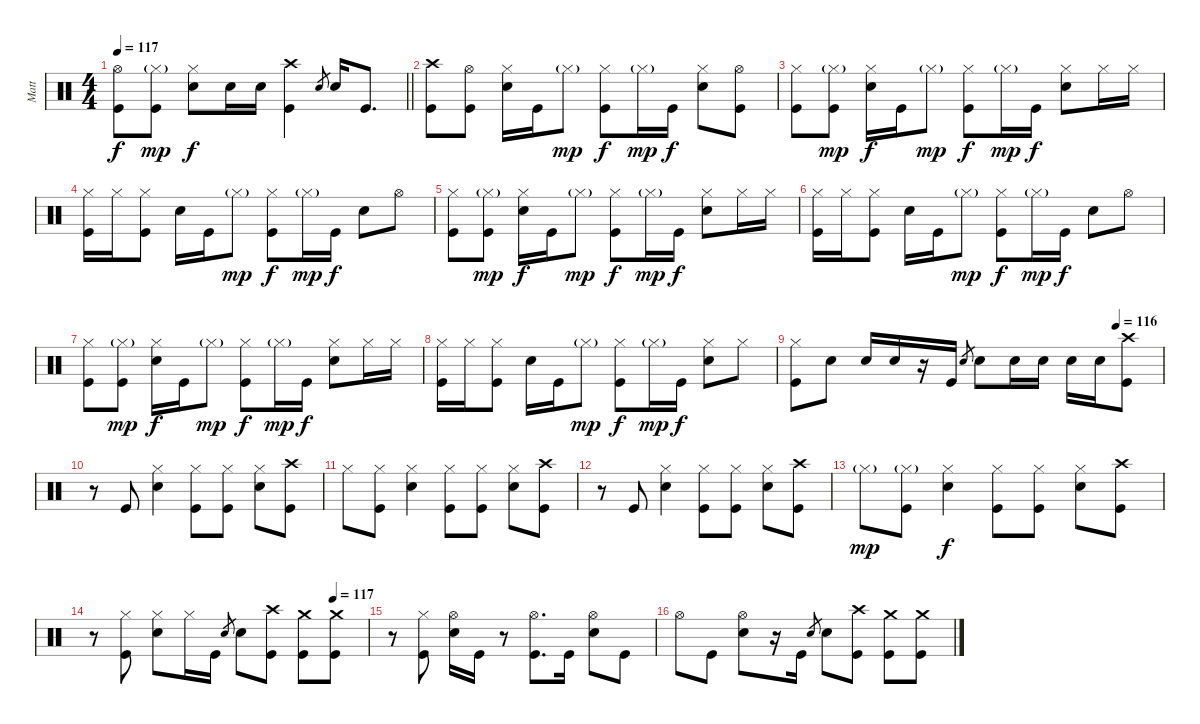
\track ("Matt" "Matt") {instrument percussion}
\staff {score}
\articulation defaults
\ts (4 4)
\tempo 117
\clef neutral
\barLineRight lightlight
\ks c
("Kick (hit)" "Hi-Hat (open)").8{dy f} ("Kick (hit)" "Hi-Hat (closed)"{g}).8{dy mp} ("Snare (hit) 2" "Hi-Hat (closed)").8{dy f} "Snare (hit) 2".16 "Snare (hit) 2".16 ("Crash high (hit)" "Kick (hit)").4 "Snare (hit) 2".8{gr} "Snare (hit) 2".16 "Kick (hit)".8{d} |
("Crash high (hit)" "Kick (hit)").8 ("Kick (hit)" "Hi-Hat (open)").8 ("Snare (hit) 2" "Hi-Hat (closed)").16 "Kick (hit)".16 "Hi-Hat (closed)"{g}.8{dy mp} ("Kick (hit)" "Hi-Hat (closed)").8{dy f} "Hi-Hat (closed)"{g}.16{dy mp} "Kick (hit)".16{dy f} ("Snare (hit) 2" "Hi-Hat (closed)").8 ("Kick (hit)" "Hi-Hat (open)").8 |
("Kick (hit)" "Hi-Hat (closed)").8 ("Kick (hit)" "Hi-Hat (closed)"{g}).8{dy mp} ("Snare (hit) 2" "Hi-Hat (closed)").16{dy f} "Kick (hit)".16 "Hi-Hat (closed)"{g}.8{dy mp} ("Kick (hit)" "Hi-Hat (closed)").8{dy f} "Hi-Hat (closed)"{g}.16{dy mp} "Kick (hit)".16{dy f} ("Snare (hit) 2" "Hi-Hat (closed)").8 "Hi-Hat (closed)".16 "Hi-Hat (closed)".16 |
("Kick (hit)" "Hi-Hat (closed)").16 "Hi-Hat (closed)".16 ("Kick (hit)" "Hi-Hat (closed)").8 "Snare (hit) 2".16 "Kick (hit)".16 "Hi-Hat (closed)"{g}.8{dy mp} ("Kick (hit)" "Hi-Hat (closed)").8{dy f} "Hi-Hat (closed)"{g}.16{dy mp} "Kick (hit)".16{dy f} "Snare (hit) 2".8 "Hi-Hat (open)".8 |
("Kick (hit)" "Hi-Hat (closed)").8 ("Kick (hit)" "Hi-Hat (closed)"{g}).8{dy mp} ("Snare (hit) 2" "Hi-Hat (closed)").16{dy f} "Kick (hit)".16 "Hi-Hat (closed)"{g}.8{dy mp} ("Kick (hit)" "Hi-Hat (closed)").8{dy f} "Hi-Hat (closed)"{g}.16{dy mp} "Kick (hit)".16{dy f} ("Snare (hit) 2" "Hi-Hat (closed)").8 "Hi-Hat (closed)".16 "Hi-Hat (closed)".16 |
("Kick (hit)" "Hi-Hat (closed)").16 "Hi-Hat (closed)".16 ("Kick (hit)" "Hi-Hat (closed)").8 "Snare (hit) 2".16 "Kick (hit)".16 "Hi-Hat (closed)"{g}.8{dy mp} ("Kick (hit)" "Hi-Hat (closed)").8{dy f} "Hi-Hat (closed)"{g}.16{dy mp} "Kick (hit)".16{dy f} "Snare (hit) 2".8 "Hi-Hat (open)".8 |
("Kick (hit)" "Hi-Hat (closed)").8 ("Kick (hit)" "Hi-Hat (closed)"{g}).8{dy mp} ("Snare (hit) 2" "Hi-Hat (closed)").16{dy f} "Kick (hit)".16 "Hi-Hat (closed)"{g}.8{dy mp} ("Kick (hit)" "Hi-Hat (closed)").8{dy f} "Hi-Hat (closed)"{g}.16{dy mp} "Kick (hit)".16{dy f} ("Snare (hit) 2" "Hi-Hat (closed)").8 "Hi-Hat (closed)".16 "Hi-Hat (closed)".16 |
("Kick (hit)" "Hi-Hat (closed)").16 "Hi-Hat (closed)".16 ("Kick (hit)" "Hi-Hat (closed)").8 "Snare (hit) 2".16 "Kick (hit)".16 "Hi-Hat (closed)"{g}.8{dy mp} ("Kick (hit)" "Hi-Hat (closed)").8{dy f} "Hi-Hat (closed)"{g}.16{dy mp} "Kick (hit)".16{dy f} ("Snare (hit) 2" "Hi-Hat (closed)").8 "Hi-Hat (closed)".8 |
\tempo (116 0.875)
("Kick (hit)" "Hi-Hat (closed)").8 "Snare (hit) 2".8 "Snare (hit) 2".16 "Snare (hit) 2".16 r.16 "Kick (hit)".16 "Snare (hit) 2".8{gr} "Snare (hit) 2".8 "Snare (hit) 2".16 "Snare (hit) 2".16 "Snare (hit) 2".16 "Snare (hit) 2".16 ("Crash high (hit)" "Kick (hit)").8 |
r.8 "Kick (hit)".8 ("Snare (hit) 2" "Hi-Hat (closed)").4 ("Kick (hit)" "Hi-Hat (closed)").8 ("Kick (hit)" "Hi-Hat (closed)").8 ("Snare (hit) 2" "Hi-Hat (closed)").8 ("Crash high (hit)" "Kick (hit)").8 |
"Hi-Hat (closed)".8 ("Kick (hit)" "Hi-Hat (closed)").8 ("Snare (hit) 2" "Hi-Hat (closed)").4 ("Kick (hit)" "Hi-Hat (closed)").8 ("Kick (hit)" "Hi-Hat (closed)").8 ("Snare (hit) 2" "Hi-Hat (closed)").8 ("Crash high (hit)" "Kick (hit)").8 |
r.8 "Kick (hit)".8 ("Snare (hit) 2" "Hi-Hat (closed)").4 ("Kick (hit)" "Hi-Hat (closed)").8 ("Kick (hit)" "Hi-Hat (closed)").8 ("Snare (hit) 2" "Hi-Hat (closed)").8 ("Crash high (hit)" "Kick (hit)").8 |
"Hi-Hat (closed)"{g}.8{dy mp} ("Kick (hit)" "Hi-Hat (closed)"{g}).8 ("Snare (hit) 2" "Hi-Hat (closed)").4{dy f} ("Kick (hit)" "Hi-Hat (closed)").8 ("Kick (hit)" "Hi-Hat (closed)").8 ("Snare (hit) 2" "Hi-Hat (closed)").8 ("Crash high (hit)" "Kick (hit)").8 |
\tempo (117 0.875)
r.8 ("Kick (hit)" "Hi-Hat (closed)").8 ("Snare (hit) 2" "Hi-Hat (closed)").8 "Hi-Hat (closed)".16 "Kick (hit)".16 "Snare (hit) 2".8{gr} "Snare (hit) 2".8 ("Crash high (hit)" "Kick (hit)").8 ("Crash medium (hit)" "Kick (hit)").8 ("Crash medium (hit)" "Kick (hit)").8 |
r.8 ("Kick (hit)" "Hi-Hat (closed)").8 ("Snare (hit) 2" "Hi-Hat (open)").16 "Kick (hit)".16 r.8 ("Kick (hit)" "Hi-Hat (open)").8{d} "Kick (hit)".16 ("Snare (hit) 2" "Hi-Hat (open)").8 "Kick (hit)".8 |
"Hi-Hat (open)".8 "Kick (hit)".8 ("Snare (hit) 2" "Hi-Hat (open)").8 r.16 "Kick (hit)".16 "Snare (hit) 2".8{gr} "Snare (hit) 2".8 ("Crash high (hit)" "Kick (hit)").8 ("Crash medium (hit)" "Kick (hit)").8 ("Crash medium (hit)" "Kick (hit)").8
